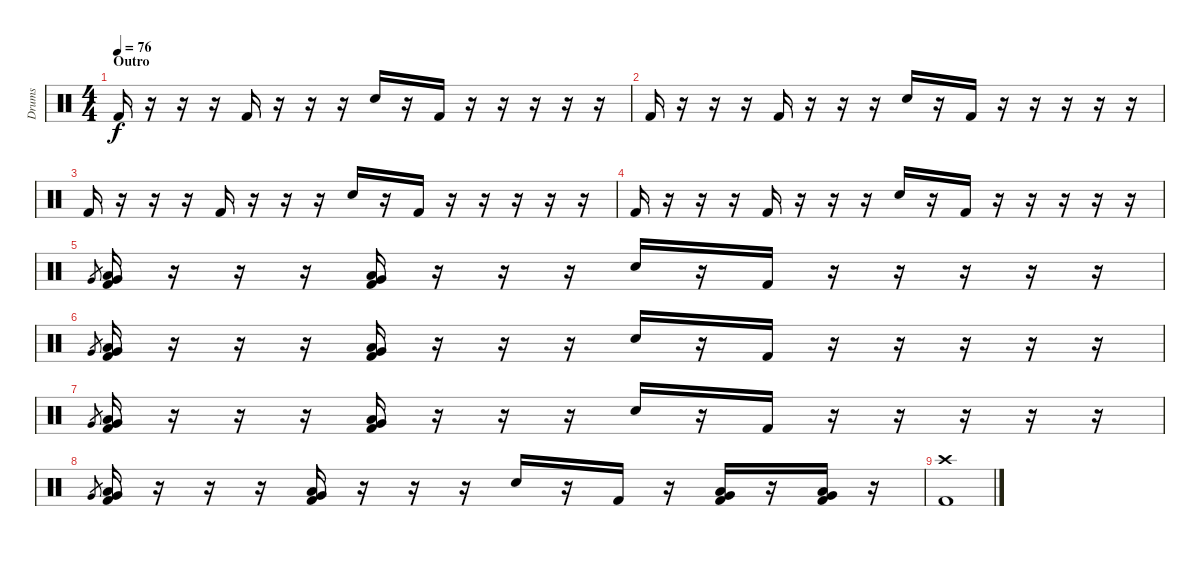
\track ("Drums" "Drums") {instrument percussion}
\staff {score}
\articulation defaults
\ts (4 4)
\section ("" "Outro")
\tempo 76
\clef neutral
\ks c "Kick (hit) 2".16{dy f}
r.16 r.16 r.16 "Kick (hit) 2".16 r.16 r.16 r.16 "Electric Snare (hit)".16 r.16 "Kick (hit) 2".16 r.16 r.16 r.16 r.16 r.16 |
"Kick (hit) 2".16 r.16 r.16 r.16 "Kick (hit) 2".16 r.16 r.16 r.16 "Electric Snare (hit)".16 r.16 "Kick (hit) 2".16 r.16 r.16 r.16 r.16 r.16 |
"Kick (hit) 2".16 r.16 r.16 r.16 "Kick (hit) 2".16 r.16 r.16 r.16 "Electric Snare (hit)".16 r.16 "Kick (hit) 2".16 r.16 r.16 r.16 r.16 r.16 |
"Kick (hit) 2".16 r.16 r.16 r.16 "Kick (hit) 2".16 r.16 r.16 r.16 "Electric Snare (hit)".16 r.16 "Kick (hit) 2".16 r.16 r.16 r.16 r.16 r.16 |
"Very Low Tom (hit)".8{gr} ("Low Tom (hit)" "Very Low Tom (hit)" "Kick (hit) 2").16 r.16 r.16 r.16 ("Low Tom (hit)" "Very Low Tom (hit)" "Kick (hit) 2").16 r.16 r.16 r.16 "Electric Snare (hit)".16 r.16 "Kick (hit) 2".16 r.16 r.16 r.16 r.16 r.16 |
"Very Low Tom (hit)".8{gr} ("Low Tom (hit)" "Very Low Tom (hit)" "Kick (hit) 2").16 r.16 r.16 r.16 ("Low Tom (hit)" "Very Low Tom (hit)" "Kick (hit) 2").16 r.16 r.16 r.16 "Electric Snare (hit)".16 r.16 "Kick (hit) 2".16 r.16 r.16 r.16 r.16 r.16 |
"Very Low Tom (hit)".8{gr} ("Low Tom (hit)" "Very Low Tom (hit)" "Kick (hit) 2").16 r.16 r.16 r.16 ("Low Tom (hit)" "Very Low Tom (hit)" "Kick (hit) 2").16 r.16 r.16 r.16 "Electric Snare (hit)".16 r.16 "Kick (hit) 2".16 r.16 r.16 r.16 r.16 r.16 |
"Very Low Tom (hit)".8{gr} ("Low Tom (hit)" "Very Low Tom (hit)" "Kick (hit) 2").16 r.16 r.16 r.16 ("Low Tom (hit)" "Very Low Tom (hit)" "Kick (hit) 2").16 r.16 r.16 r.16 "Electric Snare (hit)".16 r.16 "Kick (hit) 2".16 r.16 ("Very Low Tom (hit)" "Low Tom (hit)" "Kick (hit) 2").16 r.16 ("Very Low Tom (hit)" "Low Tom (hit)" "Kick (hit) 2").16 r.16 |
("Crash high (hit)" "Kick (hit) 2").1
